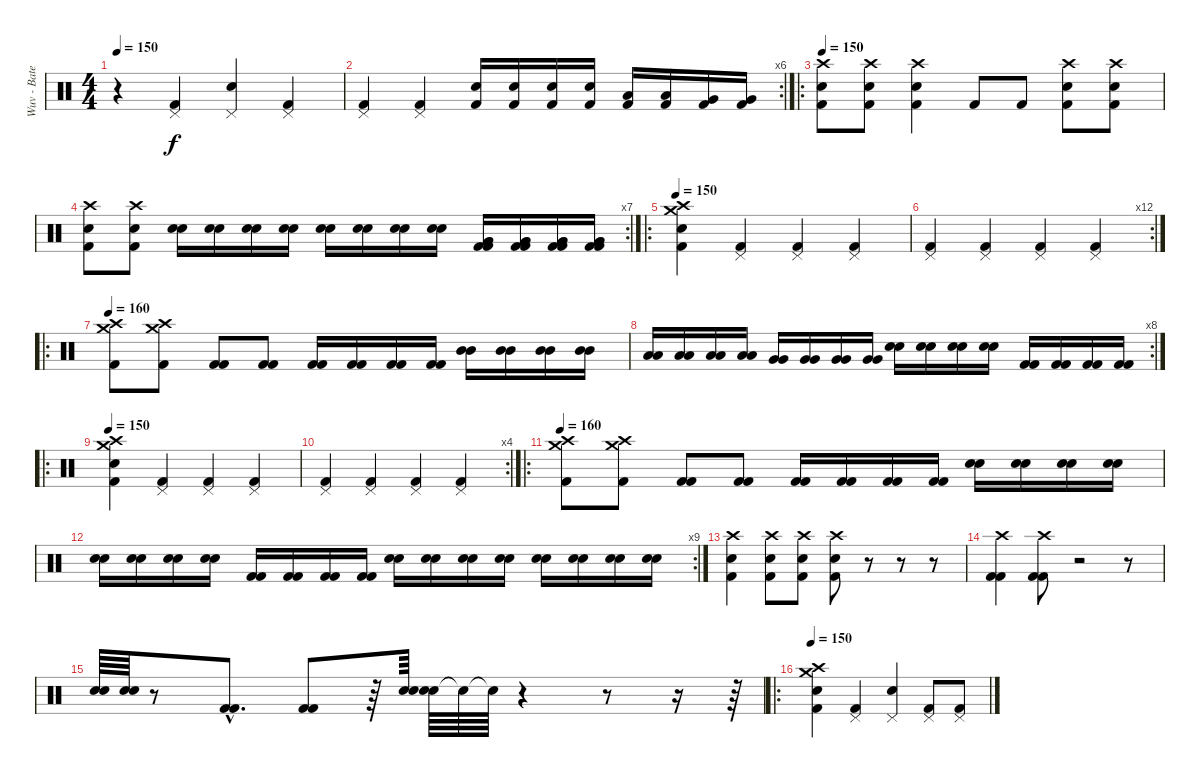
\track ("Wuv - Bateria " "Wuv - Bate") {instrument percussion}
\staff {score}
\articulation defaults
\ts (4 4)
\tempo 150
\clef neutral
\ks c
r.4{dy f} ("Pedal Hi-Hat (hit)" "Kick (hit) 2").4 ("Pedal Hi-Hat (hit)" "Electric Snare (hit)").4 ("Pedal Hi-Hat (hit)" "Kick (hit) 2").4 |
\rc 6
("Pedal Hi-Hat (hit)" "Kick (hit) 2").4 ("Pedal Hi-Hat (hit)" "Kick (hit) 2").4 ("Electric Snare (hit)" "Kick (hit) 2").16 ("Electric Snare (hit)" "Kick (hit) 2").16 ("Electric Snare (hit)" "Kick (hit) 2").16 ("Electric Snare (hit)" "Kick (hit) 2").16 ("Low Tom (hit)" "Kick (hit) 2").16 ("Low Tom (hit)" "Kick (hit) 2").16 ("Very Low Tom (hit)" "Kick (hit) 2").16 ("Very Low Tom (hit)" "Kick (hit) 2").16 |
\ro
\tempo 150
("Crash high (hit)" "Electric Snare (hit)" "Kick (hit) 2").8 ("Crash high (hit)" "Electric Snare (hit)" "Kick (hit) 2").8 ("Crash high (hit)" "Electric Snare (hit)" "Kick (hit) 2").4 "Kick (hit) 2".8 "Kick (hit) 2".8 ("Crash high (hit)" "Electric Snare (hit)" "Kick (hit) 2").8 ("Crash high (hit)" "Electric Snare (hit)" "Kick (hit) 2").8 |
\rc 7
("Crash high (hit)" "Electric Snare (hit)" "Kick (hit) 2").8 ("Crash high (hit)" "Electric Snare (hit)" "Kick (hit) 2").8 ("Electric Snare (hit)" "Electric Snare (hit)").16 ("Electric Snare (hit)" "Electric Snare (hit)").16 ("Electric Snare (hit)" "Electric Snare (hit)").16 ("Electric Snare (hit)" "Electric Snare (hit)").16 ("Snare (hit) 2" "Snare (hit) 2").16 ("Snare (hit) 2" "Snare (hit) 2").16 ("Snare (hit) 2" "Snare (hit) 2").16 ("Snare (hit) 2" "Snare (hit) 2").16 ("Very Low Tom (hit)" "Very Low Tom (hit)" "Kick (hit) 2" "Kick (hit) 2").16 ("Very Low Tom (hit)" "Very Low Tom (hit)" "Kick (hit) 2" "Kick (hit) 2").16 ("Very Low Tom (hit)" "Very Low Tom (hit)" "Kick (hit) 2" "Kick (hit) 2").16 ("Very Low Tom (hit)" "Very Low Tom (hit)" "Kick (hit) 2" "Kick (hit) 2").16 |
\ro
\tempo 150
("Snare (hit)" "Kick (hit) 2" "Crash medium (hit)" "Crash high (hit)").4 ("Pedal Hi-Hat (hit)" "Kick (hit) 2").4 ("Pedal Hi-Hat (hit)" "Kick (hit) 2").4 ("Pedal Hi-Hat (hit)" "Kick (hit) 2").4 |
\rc 12
("Pedal Hi-Hat (hit)" "Kick (hit) 2").4 ("Pedal Hi-Hat (hit)" "Kick (hit) 2").4 ("Pedal Hi-Hat (hit)" "Kick (hit) 2").4 ("Pedal Hi-Hat (hit)" "Kick (hit) 2").4 |
\ro
\tempo 160
("Crash high (hit)" "Kick (hit) 2" "Crash medium (hit)").8 ("Crash high (hit)" "Kick (hit) 2" "Crash medium (hit)").8 ("Kick (hit) 2" "Kick (hit) 2").8 ("Kick (hit) 2" "Kick (hit) 2").8 ("Kick (hit) 2" "Kick (hit) 2").16 ("Kick (hit) 2" "Kick (hit) 2").16 ("Kick (hit) 2" "Kick (hit) 2").16 ("Kick (hit) 2" "Kick (hit) 2").16 ("Mid Tom (hit)" "Mid Tom (hit)").16 ("Mid Tom (hit)" "Mid Tom (hit)").16 ("Mid Tom (hit)" "Mid Tom (hit)").16 ("Mid Tom (hit)" "Mid Tom (hit)").16 |
\rc 8
("Low Tom (hit)" "Low Tom (hit)").16 ("Low Tom (hit)" "Low Tom (hit)").16 ("Low Tom (hit)" "Low Tom (hit)").16 ("Low Tom (hit)" "Low Tom (hit)").16 ("Very Low Tom (hit)" "Very Low Tom (hit)").16 ("Very Low Tom (hit)" "Very Low Tom (hit)").16 ("Very Low Tom (hit)" "Very Low Tom (hit)").16 ("Very Low Tom (hit)" "Very Low Tom (hit)").16 ("Snare (hit) 2" "Snare (hit) 2").16 ("Snare (hit) 2" "Snare (hit) 2").16 ("Snare (hit) 2" "Snare (hit) 2").16 ("Snare (hit) 2" "Snare (hit) 2").16 ("Kick (hit) 2" "Kick (hit) 2").16 ("Kick (hit) 2" "Kick (hit) 2").16 ("Kick (hit) 2" "Kick (hit) 2").16 ("Kick (hit) 2" "Kick (hit) 2").16 |
\ro
\tempo 150
("Snare (hit)" "Kick (hit) 2" "Crash medium (hit)" "Crash high (hit)").4 ("Pedal Hi-Hat (hit)" "Kick (hit) 2").4 ("Pedal Hi-Hat (hit)" "Kick (hit) 2").4 ("Pedal Hi-Hat (hit)" "Kick (hit) 2").4 |
\rc 4
("Pedal Hi-Hat (hit)" "Kick (hit) 2").4 ("Pedal Hi-Hat (hit)" "Kick (hit) 2").4 ("Pedal Hi-Hat (hit)" "Kick (hit) 2").4 ("Pedal Hi-Hat (hit)" "Kick (hit) 2").4 |
\ro
\tempo 160
("Crash high (hit)" "Kick (hit) 2" "Crash medium (hit)").8 ("Crash high (hit)" "Kick (hit) 2" "Crash medium (hit)").8 ("Kick (hit) 2" "Kick (hit) 2").8 ("Kick (hit) 2" "Kick (hit) 2").8 ("Kick (hit) 2" "Kick (hit) 2").16 ("Kick (hit) 2" "Kick (hit) 2").16 ("Kick (hit) 2" "Kick (hit) 2").16 ("Kick (hit) 2" "Kick (hit) 2").16 ("Electric Snare (hit)" "Electric Snare (hit)").16 ("Electric Snare (hit)" "Electric Snare (hit)").16 ("Electric Snare (hit)" "Electric Snare (hit)").16 ("Electric Snare (hit)" "Electric Snare (hit)").16 |
\rc 9
("Snare (hit) 2" "Snare (hit) 2").16 ("Snare (hit) 2" "Snare (hit) 2").16 ("Snare (hit) 2" "Snare (hit) 2").16 ("Snare (hit) 2" "Snare (hit) 2").16 ("Kick (hit) 2" "Kick (hit) 2").16 ("Kick (hit) 2" "Kick (hit) 2").16 ("Kick (hit) 2" "Kick (hit) 2").16 ("Kick (hit) 2" "Kick (hit) 2").16 ("Electric Snare (hit)" "Electric Snare (hit)").16 ("Electric Snare (hit)" "Electric Snare (hit)").16 ("Electric Snare (hit)" "Electric Snare (hit)").16 ("Electric Snare (hit)" "Electric Snare (hit)").16 ("Snare (hit) 2" "Snare (hit) 2").16 ("Snare (hit) 2" "Snare (hit) 2").16 ("Snare (hit) 2" "Snare (hit) 2").16 ("Snare (hit) 2" "Snare (hit) 2").16 |
("Crash high (hit)" "Kick (hit) 2" "Electric Snare (hit)").4 ("Crash high (hit)" "Kick (hit) 2" "Electric Snare (hit)").8 ("Crash high (hit)" "Kick (hit) 2" "Electric Snare (hit)").8 ("Crash high (hit)" "Kick (hit) 2" "Electric Snare (hit)").8 r.8 r.8 r.8 |
("Crash high (hit)" "Kick (hit) 2" "Kick (hit) 2").4 ("Crash high (hit)" "Kick (hit) 2" "Kick (hit) 2").8 r.2 r.8 |
("Electric Snare (hit)" "Electric Snare (hit)").64 ("Electric Snare (hit)" "Electric Snare (hit)").64 r.8 ("Kick (hit) 2"{hac} "Kick (hit) 2"{hac}).8{d} ("Kick (hit) 2" "Kick (hit) 2").8 r.64 ("Electric Snare (hit)" "Electric Snare (hit)").64 ("Electric Snare (hit)" "Electric Snare (hit)").64 "Snare (hit)"{t}.64 "Snare (hit)"{t}.64 r.4 r.8 r.16 r.64 |
\ro
\tempo 150
("Snare (hit)" "Kick (hit) 2" "Crash medium (hit)" "Crash high (hit)").4 ("Pedal Hi-Hat (hit)" "Kick (hit) 2").4 ("Pedal Hi-Hat (hit)" "Electric Snare (hit)").4 ("Pedal Hi-Hat (hit)" "Kick (hit) 2").8 ("Pedal Hi-Hat (hit)" "Kick (hit) 2").8
